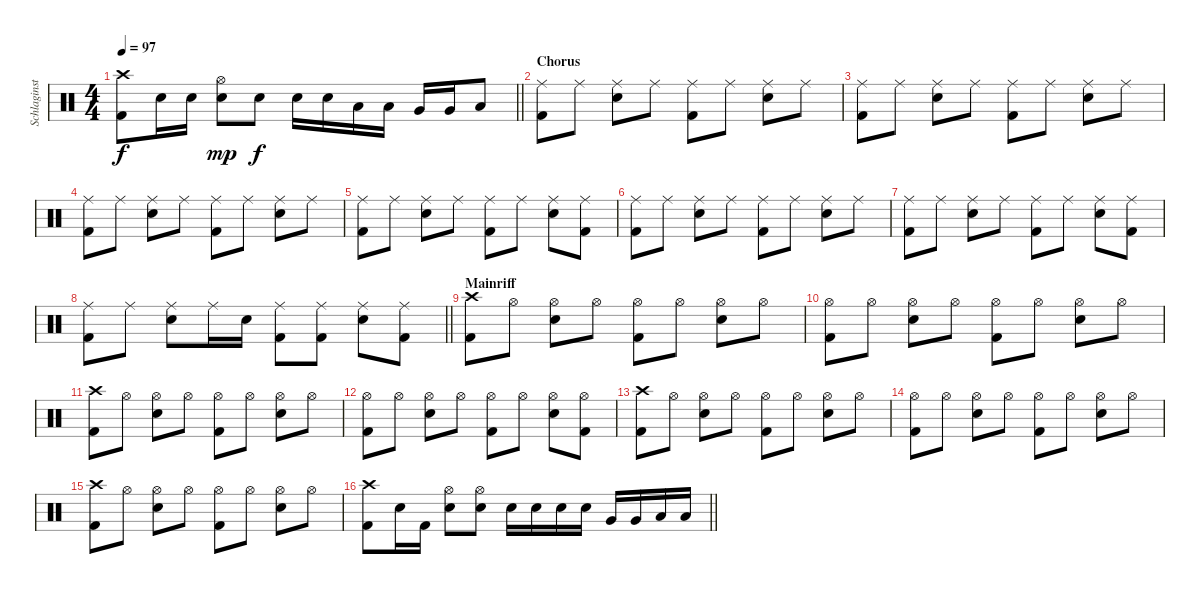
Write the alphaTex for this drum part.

\track ("Schlaginstrumente - Auswahl" "Schlaginst") {instrument percussion}
\staff {score}
\articulation defaults
\ts (4 4)
\tempo 97
\clef neutral
\barLineRight lightlight
\ks c
("Crash high (hit)" "Kick (hit) 2").8{dy f} "Electric Snare (hit)".16 "Electric Snare (hit)".16 ("Hi-Hat (open)" "Electric Snare (hit)").8{dy mp} "Electric Snare (hit)".8{dy f} "Electric Snare (hit)".16 "Electric Snare (hit)".16 "Low Tom (hit)".16 "Low Tom (hit)".16 "Very Low Tom (hit)".16 "Very Low Tom (hit)".16 "Low Floor Tom (hit)".8 |
\section ("" "Chorus")
("Ride (middle)" "Kick (hit) 2").8 "Ride (middle)".8 ("Ride (middle)" "Electric Snare (hit)").8 "Ride (middle)".8 ("Ride (middle)" "Kick (hit) 2").8 "Ride (middle)".8 ("Ride (middle)" "Electric Snare (hit)").8 "Ride (middle)".8 |
("Ride (middle)" "Kick (hit) 2").8 "Ride (middle)".8 ("Ride (middle)" "Electric Snare (hit)").8 "Ride (middle)".8 ("Ride (middle)" "Kick (hit) 2").8 "Ride (middle)".8 ("Ride (middle)" "Electric Snare (hit)").8 "Ride (middle)".8 |
("Ride (middle)" "Kick (hit) 2").8 "Ride (middle)".8 ("Ride (middle)" "Electric Snare (hit)").8 "Ride (middle)".8 ("Ride (middle)" "Kick (hit) 2").8 "Ride (middle)".8 ("Ride (middle)" "Electric Snare (hit)").8 "Ride (middle)".8 |
("Ride (middle)" "Kick (hit) 2").8 "Ride (middle)".8 ("Ride (middle)" "Electric Snare (hit)").8 "Ride (middle)".8 ("Ride (middle)" "Kick (hit) 2").8 "Ride (middle)".8 ("Ride (middle)" "Electric Snare (hit)").8 ("Ride (middle)" "Kick (hit) 2").8 |
("Ride (middle)" "Kick (hit) 2").8 "Ride (middle)".8 ("Ride (middle)" "Electric Snare (hit)").8 "Ride (middle)".8 ("Ride (middle)" "Kick (hit) 2").8 "Ride (middle)".8 ("Ride (middle)" "Electric Snare (hit)").8 "Ride (middle)".8 |
("Ride (middle)" "Kick (hit) 2").8 "Ride (middle)".8 ("Ride (middle)" "Electric Snare (hit)").8 "Ride (middle)".8 ("Ride (middle)" "Kick (hit) 2").8 "Ride (middle)".8 ("Ride (middle)" "Electric Snare (hit)").8 ("Ride (middle)" "Kick (hit) 2").8 |
\barLineRight lightlight
("Ride (middle)" "Kick (hit) 2").8 "Ride (middle)".8 ("Ride (middle)" "Electric Snare (hit)").8 "Ride (middle)".16 "Electric Snare (hit)".16 ("Ride (middle)" "Kick (hit) 2").8 ("Ride (middle)" "Kick (hit) 2").8 ("Ride (middle)" "Electric Snare (hit)").8 ("Ride (middle)" "Kick (hit) 2").8 |
\section ("" "Mainriff")
("Crash high (hit)" "Kick (hit) 2").8 "Hi-Hat (open)".8 ("Hi-Hat (open)" "Electric Snare (hit)").8 "Hi-Hat (open)".8 ("Hi-Hat (open)" "Kick (hit) 2").8 "Hi-Hat (open)".8 ("Hi-Hat (open)" "Electric Snare (hit)").8 "Hi-Hat (open)".8 |
("Hi-Hat (open)" "Kick (hit) 2").8 "Hi-Hat (open)".8 ("Hi-Hat (open)" "Electric Snare (hit)").8 "Hi-Hat (open)".8 ("Hi-Hat (open)" "Kick (hit) 2").8 "Hi-Hat (open)".8 ("Hi-Hat (open)" "Electric Snare (hit)").8 "Hi-Hat (open)".8 |
("Crash high (hit)" "Kick (hit) 2").8 "Hi-Hat (open)".8 ("Hi-Hat (open)" "Electric Snare (hit)").8 "Hi-Hat (open)".8 ("Hi-Hat (open)" "Kick (hit) 2").8 "Hi-Hat (open)".8 ("Hi-Hat (open)" "Electric Snare (hit)").8 "Hi-Hat (open)".8 |
("Hi-Hat (open)" "Kick (hit) 2").8 "Hi-Hat (open)".8 ("Hi-Hat (open)" "Electric Snare (hit)").8 "Hi-Hat (open)".8 ("Hi-Hat (open)" "Kick (hit) 2").8 "Hi-Hat (open)".8 ("Hi-Hat (open)" "Electric Snare (hit)").8 ("Hi-Hat (open)" "Kick (hit) 2").8 |
("Crash high (hit)" "Kick (hit) 2").8 "Hi-Hat (open)".8 ("Hi-Hat (open)" "Electric Snare (hit)").8 "Hi-Hat (open)".8 ("Hi-Hat (open)" "Kick (hit) 2").8 "Hi-Hat (open)".8 ("Hi-Hat (open)" "Electric Snare (hit)").8 "Hi-Hat (open)".8 |
("Hi-Hat (open)" "Kick (hit) 2").8 "Hi-Hat (open)".8 ("Hi-Hat (open)" "Electric Snare (hit)").8 "Hi-Hat (open)".8 ("Hi-Hat (open)" "Kick (hit) 2").8 "Hi-Hat (open)".8 ("Hi-Hat (open)" "Electric Snare (hit)").8 "Hi-Hat (open)".8 |
("Crash high (hit)" "Kick (hit) 2").8 "Hi-Hat (open)".8 ("Hi-Hat (open)" "Electric Snare (hit)").8 "Hi-Hat (open)".8 ("Hi-Hat (open)" "Kick (hit) 2").8 "Hi-Hat (open)".8 ("Hi-Hat (open)" "Electric Snare (hit)").8 "Hi-Hat (open)".8 |
\barLineRight lightlight
("Crash high (hit)" "Kick (hit) 2").8 "Electric Snare (hit)".16 "Kick (hit) 2".16 ("Hi-Hat (open)" "Electric Snare (hit)").8 ("Hi-Hat (open)" "Electric Snare (hit)").8 "Electric Snare (hit)".16 "Electric Snare (hit)".16 "Electric Snare (hit)".16 "Electric Snare (hit)".16 "Very Low Tom (hit)".16 "Very Low Tom (hit)".16 "Low Floor Tom (hit)".16 "Low Floor Tom (hit)".16
